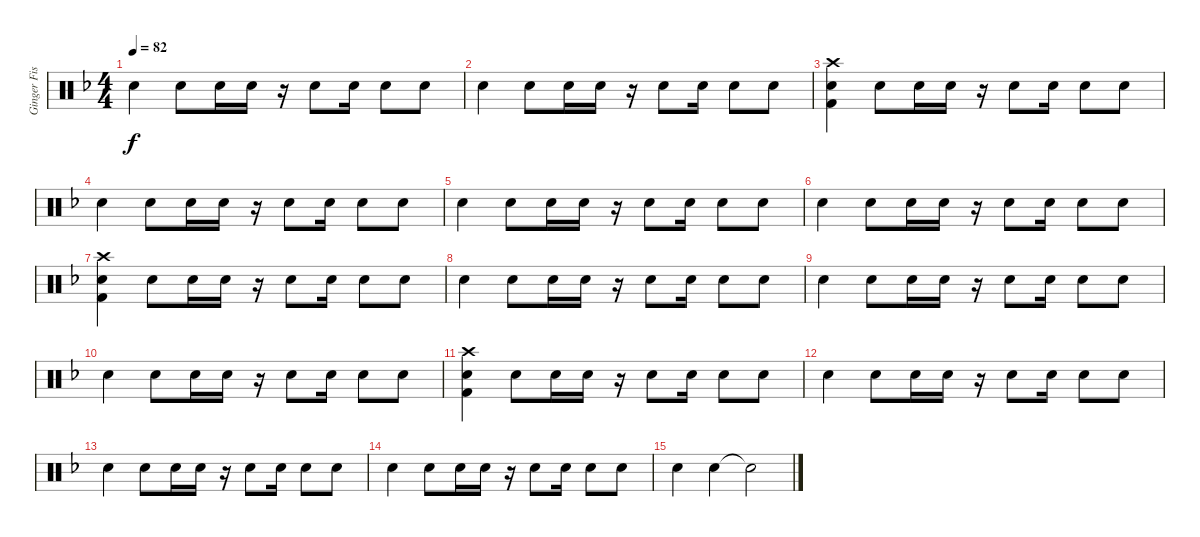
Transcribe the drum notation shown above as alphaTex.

\track ("Ginger Fish" "Ginger Fis") {instrument percussion}
\staff {score}
\articulation defaults
\ts (4 4)
\tempo 82
\clef neutral
\ks f "Electric Snare (hit)".4{dy f} "Electric Snare (hit)".8 "Electric Snare (hit)".16 "Electric Snare (hit)".16
r.16 "Electric Snare (hit)".8 "Electric Snare (hit)".16 "Electric Snare (hit)".8 "Electric Snare (hit)".8 |
"Electric Snare (hit)".4 "Electric Snare (hit)".8 "Electric Snare (hit)".16 "Electric Snare (hit)".16 r.16 "Electric Snare (hit)".8 "Electric Snare (hit)".16 "Electric Snare (hit)".8 "Electric Snare (hit)".8 |
("Kick (hit) 2" "Crash high (hit)" "Electric Snare (hit)").4{volume 13} "Electric Snare (hit)".8 "Electric Snare (hit)".16 "Electric Snare (hit)".16 r.16 "Electric Snare (hit)".8 "Electric Snare (hit)".16 "Electric Snare (hit)".8 "Electric Snare (hit)".8 |
"Electric Snare (hit)".4 "Electric Snare (hit)".8 "Electric Snare (hit)".16 "Electric Snare (hit)".16 r.16 "Electric Snare (hit)".8 "Electric Snare (hit)".16 "Electric Snare (hit)".8 "Electric Snare (hit)".8 |
"Electric Snare (hit)".4 "Electric Snare (hit)".8 "Electric Snare (hit)".16 "Electric Snare (hit)".16 r.16 "Electric Snare (hit)".8 "Electric Snare (hit)".16 "Electric Snare (hit)".8 "Electric Snare (hit)".8 |
"Electric Snare (hit)".4 "Electric Snare (hit)".8 "Electric Snare (hit)".16 "Electric Snare (hit)".16 r.16 "Electric Snare (hit)".8 "Electric Snare (hit)".16 "Electric Snare (hit)".8 "Electric Snare (hit)".8 |
("Kick (hit) 2" "Crash high (hit)" "Electric Snare (hit)").4{volume 13} "Electric Snare (hit)".8 "Electric Snare (hit)".16 "Electric Snare (hit)".16 r.16 "Electric Snare (hit)".8 "Electric Snare (hit)".16 "Electric Snare (hit)".8 "Electric Snare (hit)".8 |
"Electric Snare (hit)".4 "Electric Snare (hit)".8 "Electric Snare (hit)".16 "Electric Snare (hit)".16 r.16 "Electric Snare (hit)".8 "Electric Snare (hit)".16 "Electric Snare (hit)".8 "Electric Snare (hit)".8 |
"Electric Snare (hit)".4 "Electric Snare (hit)".8 "Electric Snare (hit)".16 "Electric Snare (hit)".16 r.16 "Electric Snare (hit)".8 "Electric Snare (hit)".16 "Electric Snare (hit)".8 "Electric Snare (hit)".8 |
"Electric Snare (hit)".4 "Electric Snare (hit)".8 "Electric Snare (hit)".16 "Electric Snare (hit)".16 r.16 "Electric Snare (hit)".8 "Electric Snare (hit)".16 "Electric Snare (hit)".8 "Electric Snare (hit)".8 |
("Kick (hit) 2" "Crash high (hit)" "Electric Snare (hit)").4{volume 13} "Electric Snare (hit)".8 "Electric Snare (hit)".16 "Electric Snare (hit)".16 r.16 "Electric Snare (hit)".8 "Electric Snare (hit)".16 "Electric Snare (hit)".8 "Electric Snare (hit)".8 |
"Electric Snare (hit)".4 "Electric Snare (hit)".8 "Electric Snare (hit)".16 "Electric Snare (hit)".16 r.16 "Electric Snare (hit)".8 "Electric Snare (hit)".16 "Electric Snare (hit)".8 "Electric Snare (hit)".8 |
"Electric Snare (hit)".4 "Electric Snare (hit)".8 "Electric Snare (hit)".16 "Electric Snare (hit)".16 r.16 "Electric Snare (hit)".8 "Electric Snare (hit)".16 "Electric Snare (hit)".8 "Electric Snare (hit)".8 |
"Electric Snare (hit)".4 "Electric Snare (hit)".8 "Electric Snare (hit)".16 "Electric Snare (hit)".16 r.16 "Electric Snare (hit)".8 "Electric Snare (hit)".16 "Electric Snare (hit)".8 "Electric Snare (hit)".8 |
"Electric Snare (hit)".4 "Electric Snare (hit)".4 "Snare (hit)"{t}.2
